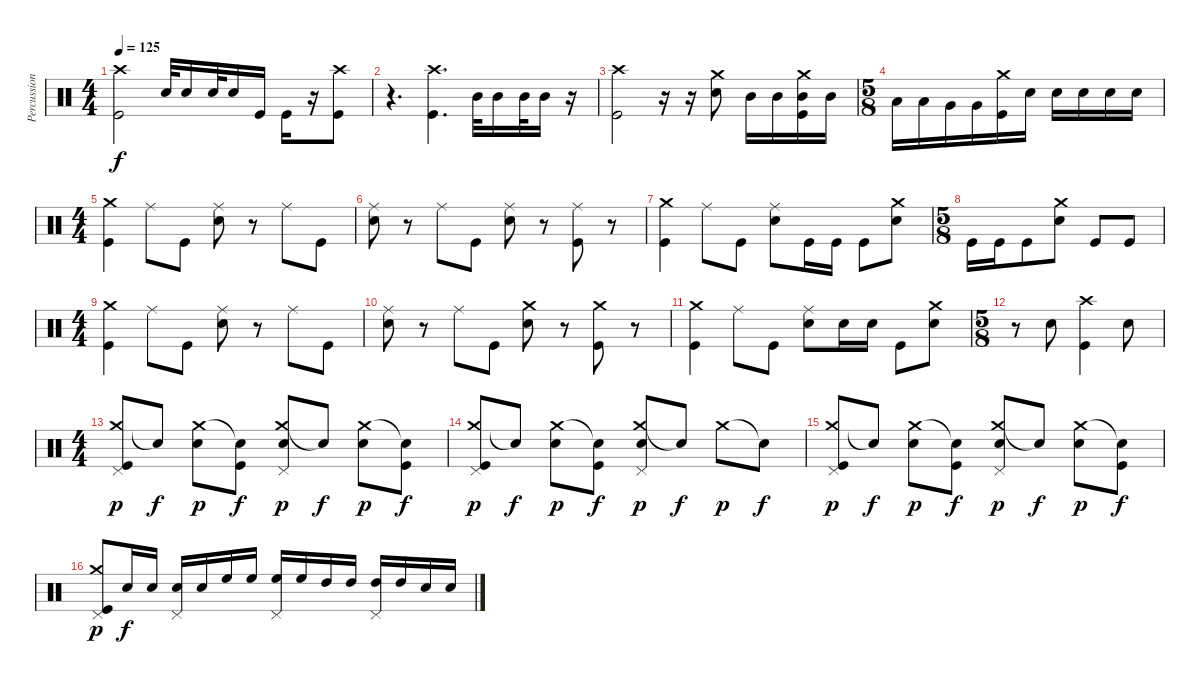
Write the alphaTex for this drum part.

\track ("Percussion" "Percussion") {instrument percussion}
\staff {score}
\articulation defaults
\ts (4 4)
\tempo 125
\clef neutral
\ks c
("Crash high (hit)" "Kick (hit)").2{dy f} "Snare (hit) 2".32 "Snare (hit) 2".16 "Snare (hit) 2".32 "Snare (hit) 2".16 "Kick (hit)".16 "Kick (hit)".16 r.16 ("Crash high (hit)" "Kick (hit)").8 |
r.4{d} ("Crash high (hit)" "Kick (hit)").4{d} "Mid Tom (hit)".32 "Mid Tom (hit)".16 "Mid Tom (hit)".32 "Mid Tom (hit)".16 r.16 |
("Crash high (hit)" "Kick (hit)").2 r.16 r.16 ("Crash medium (hit)" "Snare (hit) 2").8 "Mid Tom (hit)".16 "Mid Tom (hit)".16 ("Crash medium (hit)" "Mid Tom (hit)" "Kick (hit)").16 "Mid Tom (hit)".16 |
\ts (5 8)
"Low Tom (hit)".16 "Low Tom (hit)".16 "Very Low Tom (hit)".16 "Very Low Tom (hit)".16 ("Crash medium (hit)" "Kick (hit)").16 "Snare (hit) 2".16 "Snare (hit) 2".16 "Snare (hit) 2".16 "Snare (hit) 2".16 "Snare (hit) 2".16 |
\ts (4 4)
("Crash medium (hit)" "Kick (hit)").4 "Ride (middle)".8 "Kick (hit)".8 ("Ride (middle)" "Snare (hit) 2").8 r.8 "Ride (middle)".8 "Kick (hit)".8 |
("Ride (middle)" "Snare (hit) 2").8 r.8 "Ride (middle)".8 "Kick (hit)".8 ("Ride (middle)" "Snare (hit) 2").8 r.8 ("Ride (middle)" "Kick (hit)").8 r.8 |
("Crash medium (hit)" "Kick (hit)").4 "Ride (middle)".8 "Kick (hit)".8 ("Ride (middle)" "Snare (hit) 2").8 "Kick (hit)".16 "Kick (hit)".16 "Kick (hit)".8 ("Crash medium (hit)" "Snare (hit) 2").8 |
\ts (5 8)
"Kick (hit)".16 "Kick (hit)".16 "Kick (hit)".8 ("Crash medium (hit)" "Snare (hit) 2").8 "Kick (hit)".8 "Kick (hit)".8 |
\ts (4 4)
("Crash medium (hit)" "Kick (hit)").4 "Ride (middle)".8 "Kick (hit)".8 ("Ride (middle)" "Snare (hit) 2").8 r.8 "Ride (middle)".8 "Kick (hit)".8 |
("Ride (middle)" "Snare (hit) 2").8 r.8 "Ride (middle)".8 "Kick (hit)".8 ("Crash medium (hit)" "Snare (hit) 2").8 r.8 ("Crash medium (hit)" "Kick (hit)").8 r.8 |
("Crash medium (hit)" "Kick (hit)").4 "Ride (middle)".8 "Kick (hit)".8 ("Ride (middle)" "Snare (hit) 2").8 "Snare (hit) 2".16 "Snare (hit) 2".16 "Kick (hit)".8 ("Crash medium (hit)" "Snare (hit) 2").8 |
\ts (5 8)
r.8 "Snare (hit) 2".8 ("Crash high (hit)" "Kick (hit)").4 "Snare (hit) 2".8 |
\ts (4 4)
("Crash medium (hit)" "Pedal Hi-Hat (hit)" "Kick (hit)").8{dy p} "Snare (hit)"{t}.8{dy f} ("Crash medium (hit)" "Snare (hit) 2").8{dy p} ("Snare (hit)"{t} "Kick (hit)").8{dy f} ("Crash medium (hit)" "Pedal Hi-Hat (hit)" "Snare (hit) 2").8{dy p} "Snare (hit)"{t}.8{dy f} ("Crash medium (hit)" "Snare (hit) 2").8{dy p} ("Snare (hit)"{t} "Kick (hit)").8{dy f} |
("Crash medium (hit)" "Pedal Hi-Hat (hit)" "Kick (hit)").8{dy p} "Snare (hit)"{t}.8{dy f} ("Crash medium (hit)" "Snare (hit) 2").8{dy p} ("Snare (hit)"{t} "Kick (hit)").8{dy f} ("Crash medium (hit)" "Pedal Hi-Hat (hit)" "Snare (hit) 2").8{dy p} "Snare (hit)"{t}.8{dy f} "Crash medium (hit)".8{dy p} "Snare (hit)"{t}.8{dy f} |
("Crash medium (hit)" "Pedal Hi-Hat (hit)" "Kick (hit)").8{dy p} "Snare (hit)"{t}.8{dy f} ("Crash medium (hit)" "Snare (hit) 2").8{dy p} ("Snare (hit)"{t} "Kick (hit)").8{dy f} ("Crash medium (hit)" "Pedal Hi-Hat (hit)" "Snare (hit) 2").8{dy p} "Snare (hit)"{t}.8{dy f} ("Crash medium (hit)" "Snare (hit) 2").8{dy p} ("Snare (hit)"{t} "Kick (hit)").8{dy f} |
("Crash medium (hit)" "Pedal Hi-Hat (hit)" "Kick (hit)").8{dy p} "Snare (hit) 2".16{dy f} "Snare (hit) 2".16 ("Pedal Hi-Hat (hit)" "Snare (hit) 2").16 "Snare (hit) 2".16 "High Floor Tom (hit)".16 "High Floor Tom (hit)".16 ("Pedal Hi-Hat (hit)" "High Floor Tom (hit)").16 "High Floor Tom (hit)".16 "High Tom (hit)".16 "High Tom (hit)".16 ("Pedal Hi-Hat (hit)" "High Tom (hit)").16 "High Tom (hit)".16 "Snare (hit) 2".16 "Snare (hit) 2".16
